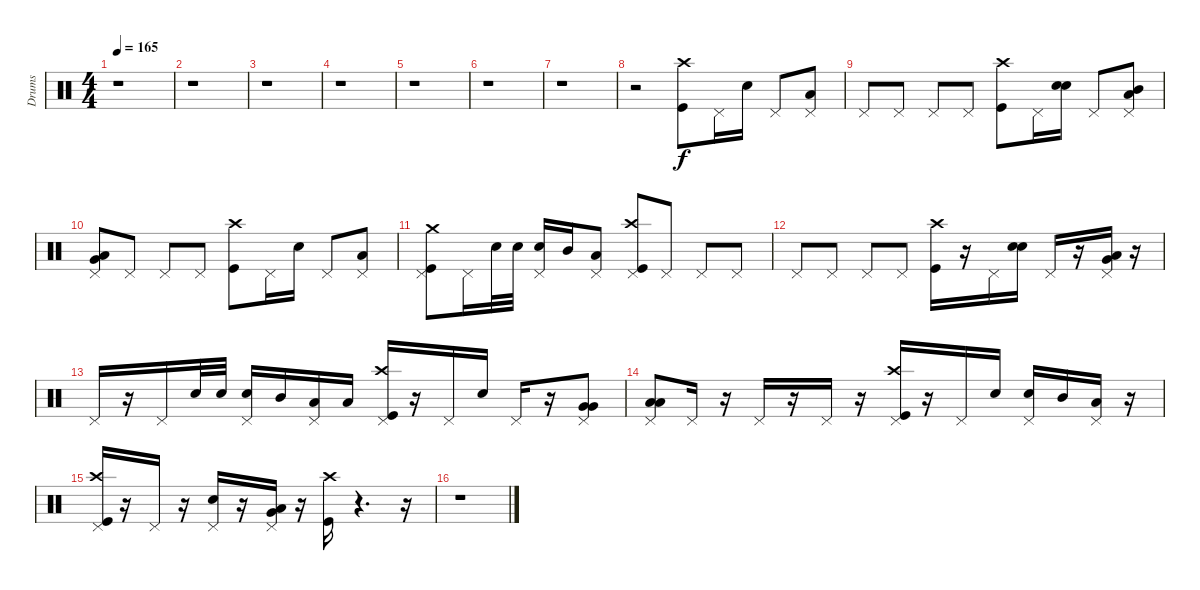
\track ("Drums" "Drums") {instrument percussion}
\staff {score}
\articulation defaults
\ts (4 4)
\tempo 165
\tempo 100
\tempo 165
\clef neutral
\ks c
r.1{dy f} |
r.1 |
r.1 |
r.1 |
r.1 |
r.1 |
r.1 |
r.2 ("Kick (hit)" "Crash high (hit)").8 "Pedal Hi-Hat (hit)".16 "Electric Snare (hit)".16 "Pedal Hi-Hat (hit)".8 ("Low Tom (hit)" "Pedal Hi-Hat (hit)").8 |
"Pedal Hi-Hat (hit)".8 "Pedal Hi-Hat (hit)".8 "Pedal Hi-Hat (hit)".8 "Pedal Hi-Hat (hit)".8 ("Kick (hit)" "Crash high (hit)").8 "Pedal Hi-Hat (hit)".16 ("Electric Snare (hit)" "Electric Snare (hit)").16 "Pedal Hi-Hat (hit)".8 ("Mid Tom (hit)" "Low Tom (hit)" "Pedal Hi-Hat (hit)").8 |
("Low Tom (hit)" "Pedal Hi-Hat (hit)" "Very Low Tom (hit)").8 "Pedal Hi-Hat (hit)".8 "Pedal Hi-Hat (hit)".8 "Pedal Hi-Hat (hit)".8 ("Kick (hit)" "Crash high (hit)").8 "Pedal Hi-Hat (hit)".16 "Electric Snare (hit)".16 "Pedal Hi-Hat (hit)".8 ("Low Tom (hit)" "Pedal Hi-Hat (hit)").8 |
("Kick (hit)" "Crash medium (hit)" "Pedal Hi-Hat (hit)").8 "Pedal Hi-Hat (hit)".16 "Electric Snare (hit)".32 "Electric Snare (hit)".32 ("Electric Snare (hit)" "Pedal Hi-Hat (hit)").16 "Mid Tom (hit)".16 ("Low Tom (hit)" "Pedal Hi-Hat (hit)").8 ("Pedal Hi-Hat (hit)" "Kick (hit)" "Crash high (hit)").8 "Pedal Hi-Hat (hit)".8 "Pedal Hi-Hat (hit)".8 "Pedal Hi-Hat (hit)".8 |
"Pedal Hi-Hat (hit)".8 "Pedal Hi-Hat (hit)".8 "Pedal Hi-Hat (hit)".8 "Pedal Hi-Hat (hit)".8 ("Kick (hit)" "Crash high (hit)").16 r.16 "Pedal Hi-Hat (hit)".16 ("Electric Snare (hit)" "Electric Snare (hit)").16 "Pedal Hi-Hat (hit)".16 r.16 ("Very Low Tom (hit)" "Low Floor Tom (hit)" "Pedal Hi-Hat (hit)").16 r.16 |
"Pedal Hi-Hat (hit)".16 r.16 "Pedal Hi-Hat (hit)".16 "Electric Snare (hit)".32 "Electric Snare (hit)".32 ("Pedal Hi-Hat (hit)" "Electric Snare (hit)").16 "Mid Tom (hit)".16 ("Pedal Hi-Hat (hit)" "Low Tom (hit)").16 "Low Floor Tom (hit)".16 ("Crash high (hit)" "Kick (hit)" "Pedal Hi-Hat (hit)").16 r.16 "Pedal Hi-Hat (hit)".16 "Electric Snare (hit)".16 "Pedal Hi-Hat (hit)".16 r.16 ("Very Low Tom (hit)" "Very Low Tom (hit)" "Pedal Hi-Hat (hit)").8 |
("Low Floor Tom (hit)" "Pedal Hi-Hat (hit)" "Low Floor Tom (hit)").8 "Pedal Hi-Hat (hit)".16 r.16 "Pedal Hi-Hat (hit)".16 r.16 "Pedal Hi-Hat (hit)".16 r.16 ("Crash high (hit)" "Kick (hit)" "Pedal Hi-Hat (hit)").16 r.16 "Pedal Hi-Hat (hit)".16 "Electric Snare (hit)".16 ("Electric Snare (hit)" "Pedal Hi-Hat (hit)").16 "Mid Tom (hit)".16 ("Low Tom (hit)" "Pedal Hi-Hat (hit)").16 r.16 |
("Crash high (hit)" "Kick (hit)" "Pedal Hi-Hat (hit)").16 r.16 "Pedal Hi-Hat (hit)".16 r.16 ("Electric Snare (hit)" "Pedal Hi-Hat (hit)").16 r.16 ("Very Low Tom (hit)" "Low Tom (hit)" "Pedal Hi-Hat (hit)").16 r.16 ("Crash high (hit)" "Kick (hit)").16 r.4{d} r.16 |
r.1
